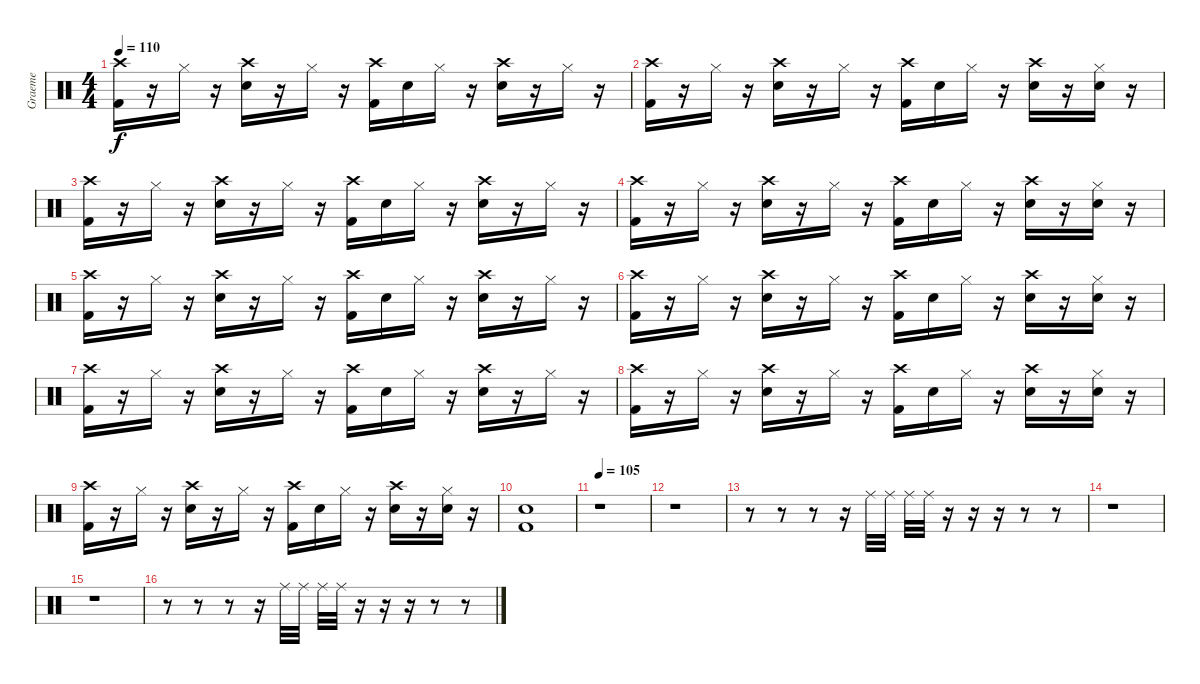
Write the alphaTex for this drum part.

\track ("Graeme" "Graeme") {instrument percussion}
\staff {score}
\articulation defaults
\ts (4 4)
\tempo 110
\clef neutral
\ks c
("Crash high (hit)" "Kick (hit) 2").16{dy f} r.16 "Hi-Hat (closed)".16 r.16 ("Snare (hit) 2" "Crash high (hit)").16 r.16 "Hi-Hat (closed)".16 r.16 ("Crash high (hit)" "Kick (hit) 2").16 "Snare (hit) 2".16 "Hi-Hat (closed)".16 r.16 ("Snare (hit) 2" "Crash high (hit)").16 r.16 "Hi-Hat (closed)".16 r.16 |
("Crash high (hit)" "Kick (hit) 2").16 r.16 "Hi-Hat (closed)".16 r.16 ("Snare (hit) 2" "Crash high (hit)").16 r.16 "Hi-Hat (closed)".16 r.16 ("Crash high (hit)" "Kick (hit) 2").16 "Snare (hit) 2".16 "Hi-Hat (closed)".16 r.16 ("Snare (hit) 2" "Crash high (hit)").16 r.16 ("Snare (hit) 2" "Hi-Hat (closed)").16 r.16 |
("Crash high (hit)" "Kick (hit) 2").16 r.16 "Hi-Hat (closed)".16 r.16 ("Snare (hit) 2" "Crash high (hit)").16 r.16 "Hi-Hat (closed)".16 r.16 ("Crash high (hit)" "Kick (hit) 2").16 "Snare (hit) 2".16 "Hi-Hat (closed)".16 r.16 ("Snare (hit) 2" "Crash high (hit)").16 r.16 "Hi-Hat (closed)".16 r.16 |
("Crash high (hit)" "Kick (hit) 2").16 r.16 "Hi-Hat (closed)".16 r.16 ("Snare (hit) 2" "Crash high (hit)").16 r.16 "Hi-Hat (closed)".16 r.16 ("Crash high (hit)" "Kick (hit) 2").16 "Snare (hit) 2".16 "Hi-Hat (closed)".16 r.16 ("Snare (hit) 2" "Crash high (hit)").16 r.16 ("Snare (hit) 2" "Hi-Hat (closed)").16 r.16 |
("Crash high (hit)" "Kick (hit) 2").16 r.16 "Hi-Hat (closed)".16 r.16 ("Snare (hit) 2" "Crash high (hit)").16 r.16 "Hi-Hat (closed)".16 r.16 ("Crash high (hit)" "Kick (hit) 2").16 "Snare (hit) 2".16 "Hi-Hat (closed)".16 r.16 ("Snare (hit) 2" "Crash high (hit)").16 r.16 "Hi-Hat (closed)".16 r.16 |
("Crash high (hit)" "Kick (hit) 2").16 r.16 "Hi-Hat (closed)".16 r.16 ("Snare (hit) 2" "Crash high (hit)").16 r.16 "Hi-Hat (closed)".16 r.16 ("Crash high (hit)" "Kick (hit) 2").16 "Snare (hit) 2".16 "Hi-Hat (closed)".16 r.16 ("Snare (hit) 2" "Crash high (hit)").16 r.16 ("Snare (hit) 2" "Hi-Hat (closed)").16 r.16 |
("Crash high (hit)" "Kick (hit) 2").16 r.16 "Hi-Hat (closed)".16 r.16 ("Snare (hit) 2" "Crash high (hit)").16 r.16 "Hi-Hat (closed)".16 r.16 ("Crash high (hit)" "Kick (hit) 2").16 "Snare (hit) 2".16 "Hi-Hat (closed)".16 r.16 ("Snare (hit) 2" "Crash high (hit)").16 r.16 "Hi-Hat (closed)".16 r.16 |
("Crash high (hit)" "Kick (hit) 2").16 r.16 "Hi-Hat (closed)".16 r.16 ("Snare (hit) 2" "Crash high (hit)").16 r.16 "Hi-Hat (closed)".16 r.16 ("Crash high (hit)" "Kick (hit) 2").16 "Snare (hit) 2".16 "Hi-Hat (closed)".16 r.16 ("Snare (hit) 2" "Crash high (hit)").16 r.16 ("Snare (hit) 2" "Hi-Hat (closed)").16 r.16 |
("Crash high (hit)" "Kick (hit) 2").16 r.16 "Hi-Hat (closed)".16 r.16 ("Snare (hit) 2" "Crash high (hit)").16 r.16 "Hi-Hat (closed)".16 r.16 ("Crash high (hit)" "Kick (hit) 2").16 "Snare (hit) 2".16 "Hi-Hat (closed)".16 r.16 ("Snare (hit) 2" "Crash high (hit)").16 r.16 ("Snare (hit) 2" "Hi-Hat (closed)").16 r.16 |
("Snare (hit) 2" "Kick (hit) 2").1 |
\tempo 105
r.1 |
r.1 |
r.8 r.8 r.8 r.16 "Ride (middle)".32 "Ride (middle)".32 "Ride (middle)".32 "Ride (middle)".32 r.16 r.16 r.16 r.8 r.8 |
r.1 |
r.1 |
r.8 r.8 r.8 r.16 "Ride (middle)".32 "Ride (middle)".32 "Ride (middle)".32 "Ride (middle)".32 r.16 r.16 r.16 r.8 r.8
